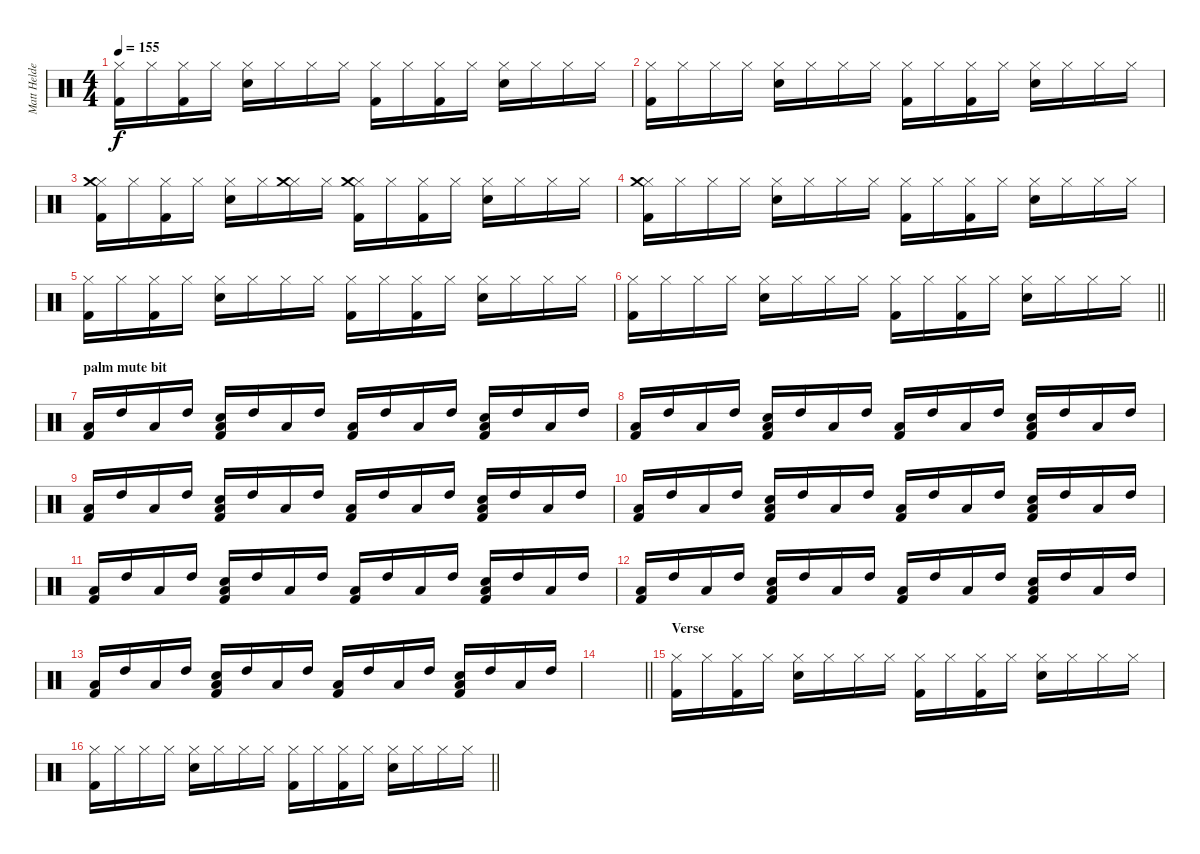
\track ("Matt Helders" "Matt Helde") {instrument percussion}
\staff {score}
\articulation defaults
\ts (4 4)
\tempo 155
\clef neutral
\ks c
("Hi-Hat (closed)" "Kick (hit) 2").16{dy f} "Hi-Hat (closed)".16 ("Hi-Hat (closed)" "Kick (hit) 2").16 "Hi-Hat (closed)".16 ("Hi-Hat (closed)" "Snare (hit) 2").16 "Hi-Hat (closed)".16 "Hi-Hat (closed)".16 "Hi-Hat (closed)".16 ("Hi-Hat (closed)" "Kick (hit) 2").16 "Hi-Hat (closed)".16 ("Hi-Hat (closed)" "Kick (hit) 2").16 "Hi-Hat (closed)".16 ("Hi-Hat (closed)" "Snare (hit) 2").16 "Hi-Hat (closed)".16 "Hi-Hat (closed)".16 "Hi-Hat (closed)".16 |
("Hi-Hat (closed)" "Kick (hit) 2").16 "Hi-Hat (closed)".16 "Hi-Hat (closed)".16 "Hi-Hat (closed)".16 ("Hi-Hat (closed)" "Snare (hit) 2").16 "Hi-Hat (closed)".16 "Hi-Hat (closed)".16 "Hi-Hat (closed)".16 ("Hi-Hat (closed)" "Kick (hit) 2").16 "Hi-Hat (closed)".16 ("Hi-Hat (closed)" "Kick (hit) 2").16 "Hi-Hat (closed)".16 ("Hi-Hat (closed)" "Snare (hit) 2").16 "Hi-Hat (closed)".16 "Hi-Hat (closed)".16 "Hi-Hat (closed)".16 |
("Hi-Hat (closed)" "Kick (hit) 2" "Crash medium (hit)").16 "Hi-Hat (closed)".16 ("Hi-Hat (closed)" "Kick (hit) 2").16 "Hi-Hat (closed)".16 ("Hi-Hat (closed)" "Snare (hit) 2").16 "Hi-Hat (closed)".16 ("Hi-Hat (closed)" "Crash medium (hit)").16 "Hi-Hat (closed)".16 ("Hi-Hat (closed)" "Kick (hit) 2" "Crash medium (hit)").16 "Hi-Hat (closed)".16 ("Hi-Hat (closed)" "Kick (hit) 2").16 "Hi-Hat (closed)".16 ("Hi-Hat (closed)" "Snare (hit) 2").16 "Hi-Hat (closed)".16 "Hi-Hat (closed)".16 "Hi-Hat (closed)".16 |
("Hi-Hat (closed)" "Kick (hit) 2" "Crash medium (hit)").16 "Hi-Hat (closed)".16 "Hi-Hat (closed)".16 "Hi-Hat (closed)".16 ("Hi-Hat (closed)" "Snare (hit) 2").16 "Hi-Hat (closed)".16 "Hi-Hat (closed)".16 "Hi-Hat (closed)".16 ("Hi-Hat (closed)" "Kick (hit) 2").16 "Hi-Hat (closed)".16 ("Hi-Hat (closed)" "Kick (hit) 2").16 "Hi-Hat (closed)".16 ("Hi-Hat (closed)" "Snare (hit) 2").16 "Hi-Hat (closed)".16 "Hi-Hat (closed)".16 "Hi-Hat (closed)".16 |
("Hi-Hat (closed)" "Kick (hit) 2").16 "Hi-Hat (closed)".16 ("Hi-Hat (closed)" "Kick (hit) 2").16 "Hi-Hat (closed)".16 ("Hi-Hat (closed)" "Snare (hit) 2").16 "Hi-Hat (closed)".16 "Hi-Hat (closed)".16 "Hi-Hat (closed)".16 ("Hi-Hat (closed)" "Kick (hit) 2").16 "Hi-Hat (closed)".16 ("Hi-Hat (closed)" "Kick (hit) 2").16 "Hi-Hat (closed)".16 ("Hi-Hat (closed)" "Snare (hit) 2").16 "Hi-Hat (closed)".16 "Hi-Hat (closed)".16 "Hi-Hat (closed)".16 |
\barLineRight lightlight
("Hi-Hat (closed)" "Kick (hit) 2").16 "Hi-Hat (closed)".16 "Hi-Hat (closed)".16 "Hi-Hat (closed)".16 ("Hi-Hat (closed)" "Snare (hit) 2").16 "Hi-Hat (closed)".16 "Hi-Hat (closed)".16 "Hi-Hat (closed)".16 ("Hi-Hat (closed)" "Kick (hit) 2").16 "Hi-Hat (closed)".16 ("Hi-Hat (closed)" "Kick (hit) 2").16 "Hi-Hat (closed)".16 ("Hi-Hat (closed)" "Snare (hit) 2").16 "Hi-Hat (closed)".16 "Hi-Hat (closed)".16 "Hi-Hat (closed)".16 |
\section ("" "palm mute bit")
("Low Tom (hit)" "Kick (hit) 2").16{volume 10} "High Tom (hit)".16 "Low Tom (hit)".16 "High Tom (hit)".16 ("Low Tom (hit)" "Kick (hit) 2" "Snare (hit) 2").16 "High Tom (hit)".16 "Low Tom (hit)".16 "High Tom (hit)".16 ("Low Tom (hit)" "Kick (hit) 2").16 "High Tom (hit)".16 "Low Tom (hit)".16 "High Tom (hit)".16 ("Low Tom (hit)" "Kick (hit) 2" "Snare (hit) 2").16 "High Tom (hit)".16 "Low Tom (hit)".16 "High Tom (hit)".16 |
("Low Tom (hit)" "Kick (hit) 2").16 "High Tom (hit)".16 "Low Tom (hit)".16 "High Tom (hit)".16 ("Low Tom (hit)" "Kick (hit) 2" "Snare (hit) 2").16 "High Tom (hit)".16 "Low Tom (hit)".16 "High Tom (hit)".16 ("Low Tom (hit)" "Kick (hit) 2").16 "High Tom (hit)".16 "Low Tom (hit)".16 "High Tom (hit)".16 ("Low Tom (hit)" "Kick (hit) 2" "Snare (hit) 2").16 "High Tom (hit)".16 "Low Tom (hit)".16 "High Tom (hit)".16 |
("Low Tom (hit)" "Kick (hit) 2").16 "High Tom (hit)".16 "Low Tom (hit)".16 "High Tom (hit)".16 ("Low Tom (hit)" "Kick (hit) 2" "Snare (hit) 2").16 "High Tom (hit)".16 "Low Tom (hit)".16 "High Tom (hit)".16 ("Low Tom (hit)" "Kick (hit) 2").16 "High Tom (hit)".16 "Low Tom (hit)".16 "High Tom (hit)".16 ("Low Tom (hit)" "Kick (hit) 2" "Snare (hit) 2").16 "High Tom (hit)".16 "Low Tom (hit)".16 "High Tom (hit)".16 |
("Low Tom (hit)" "Kick (hit) 2").16 "High Tom (hit)".16 "Low Tom (hit)".16 "High Tom (hit)".16 ("Low Tom (hit)" "Kick (hit) 2" "Snare (hit) 2").16 "High Tom (hit)".16 "Low Tom (hit)".16 "High Tom (hit)".16 ("Low Tom (hit)" "Kick (hit) 2").16 "High Tom (hit)".16 "Low Tom (hit)".16 "High Tom (hit)".16 ("Low Tom (hit)" "Kick (hit) 2" "Snare (hit) 2").16 "High Tom (hit)".16 "Low Tom (hit)".16 "High Tom (hit)".16 |
("Low Tom (hit)" "Kick (hit) 2").16 "High Tom (hit)".16 "Low Tom (hit)".16 "High Tom (hit)".16 ("Low Tom (hit)" "Kick (hit) 2" "Snare (hit) 2").16 "High Tom (hit)".16 "Low Tom (hit)".16 "High Tom (hit)".16 ("Low Tom (hit)" "Kick (hit) 2").16 "High Tom (hit)".16 "Low Tom (hit)".16 "High Tom (hit)".16 ("Low Tom (hit)" "Kick (hit) 2" "Snare (hit) 2").16 "High Tom (hit)".16 "Low Tom (hit)".16 "High Tom (hit)".16 |
("Low Tom (hit)" "Kick (hit) 2").16 "High Tom (hit)".16 "Low Tom (hit)".16 "High Tom (hit)".16 ("Low Tom (hit)" "Kick (hit) 2" "Snare (hit) 2").16 "High Tom (hit)".16 "Low Tom (hit)".16 "High Tom (hit)".16 ("Low Tom (hit)" "Kick (hit) 2").16 "High Tom (hit)".16 "Low Tom (hit)".16 "High Tom (hit)".16 ("Low Tom (hit)" "Kick (hit) 2" "Snare (hit) 2").16 "High Tom (hit)".16 "Low Tom (hit)".16 "High Tom (hit)".16 |
("Low Tom (hit)" "Kick (hit) 2").16 "High Tom (hit)".16 "Low Tom (hit)".16 "High Tom (hit)".16 ("Low Tom (hit)" "Kick (hit) 2" "Snare (hit) 2").16 "High Tom (hit)".16 "Low Tom (hit)".16 "High Tom (hit)".16 ("Low Tom (hit)" "Kick (hit) 2").16 "High Tom (hit)".16 "Low Tom (hit)".16 "High Tom (hit)".16 ("Low Tom (hit)" "Kick (hit) 2" "Snare (hit) 2").16 "High Tom (hit)".16 "Low Tom (hit)".16 "High Tom (hit)".16 |
\barLineRight lightlight
|
\section ("" "Verse")
("Hi-Hat (closed)" "Kick (hit) 2").16 "Hi-Hat (closed)".16 ("Hi-Hat (closed)" "Kick (hit) 2").16 "Hi-Hat (closed)".16 ("Hi-Hat (closed)" "Snare (hit) 2").16 "Hi-Hat (closed)".16 "Hi-Hat (closed)".16 "Hi-Hat (closed)".16 ("Hi-Hat (closed)" "Kick (hit) 2").16 "Hi-Hat (closed)".16 ("Hi-Hat (closed)" "Kick (hit) 2").16 "Hi-Hat (closed)".16 ("Hi-Hat (closed)" "Snare (hit) 2").16 "Hi-Hat (closed)".16 "Hi-Hat (closed)".16 "Hi-Hat (closed)".16 |
\barLineRight lightlight
("Hi-Hat (closed)" "Kick (hit) 2").16 "Hi-Hat (closed)".16 "Hi-Hat (closed)".16 "Hi-Hat (closed)".16 ("Hi-Hat (closed)" "Snare (hit) 2").16 "Hi-Hat (closed)".16 "Hi-Hat (closed)".16 "Hi-Hat (closed)".16 ("Hi-Hat (closed)" "Kick (hit) 2").16 "Hi-Hat (closed)".16 ("Hi-Hat (closed)" "Kick (hit) 2").16 "Hi-Hat (closed)".16 ("Hi-Hat (closed)" "Snare (hit) 2").16 "Hi-Hat (closed)".16 "Hi-Hat (closed)".16 "Hi-Hat (closed)".16
